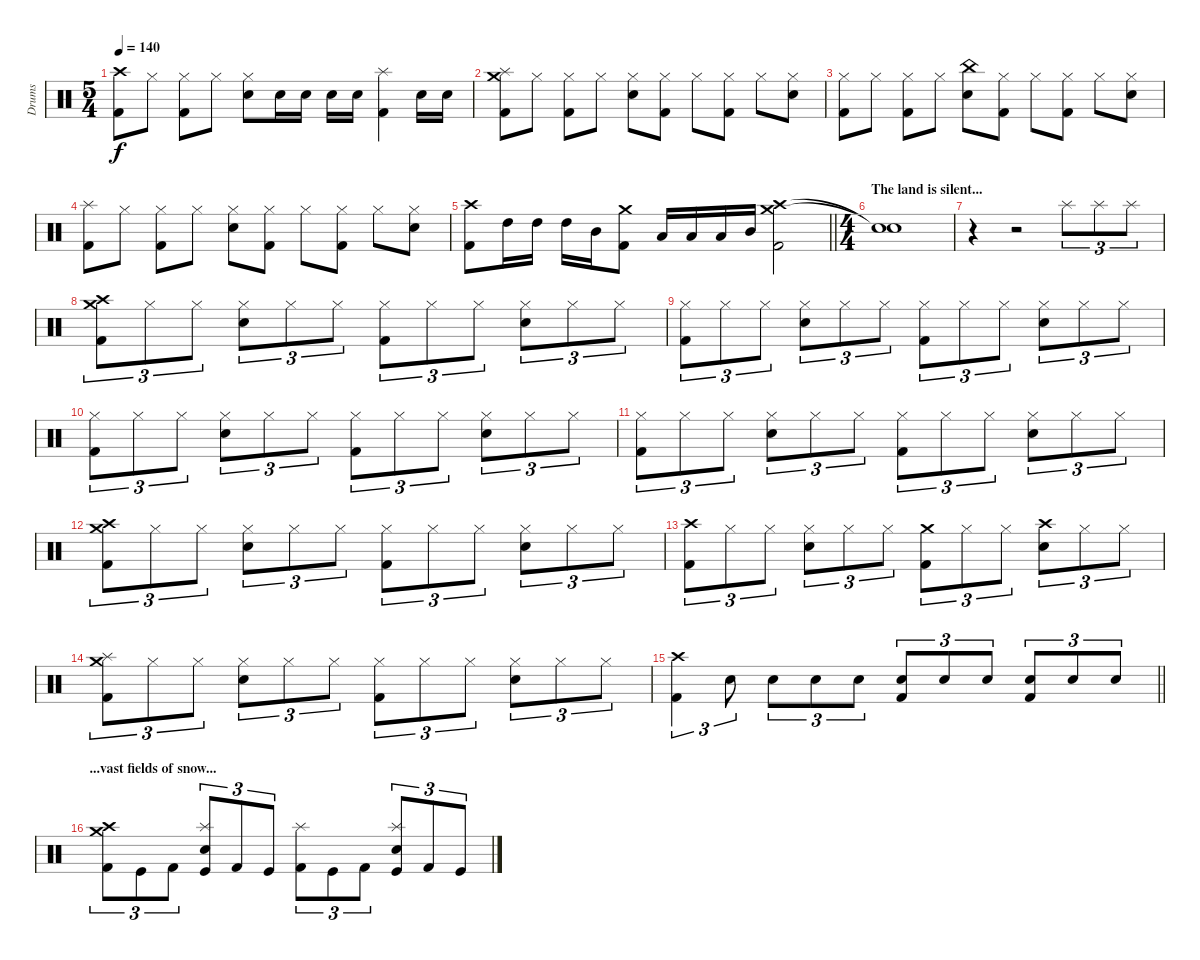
\track ("Drums" "Drums") {instrument percussion}
\staff {score}
\articulation defaults
\ts (5 4)
\tempo 140
\clef neutral
\ks c
("Crash high (hit)" "Kick (hit) 2").8{dy f} "Hi-Hat (closed)".8 ("Hi-Hat (closed)" "Kick (hit) 2").8 "Hi-Hat (closed)".8 ("Hi-Hat (closed)" "Snare (hit) 2").8 "Snare (hit) 2".16 "Snare (hit) 2".16 "Snare (hit) 2".16 "Snare (hit) 2".16 ("Splash (hit)" "Kick (hit) 2").4 "Snare (hit) 2".16 "Snare (hit) 2".16 |
("Crash medium (hit)" "Splash (hit)" "Kick (hit) 2").8 "Hi-Hat (closed)".8 ("Hi-Hat (closed)" "Kick (hit) 2").8 "Hi-Hat (closed)".8 ("Hi-Hat (closed)" "Snare (hit) 2").8 ("Hi-Hat (closed)" "Kick (hit) 2").8 "Hi-Hat (closed)".8 ("Hi-Hat (closed)" "Kick (hit) 2").8 "Hi-Hat (closed)".8 ("Hi-Hat (closed)" "Snare (hit) 2").8 |
("Hi-Hat (closed)" "Kick (hit) 2").8 "Hi-Hat (closed)".8 ("Hi-Hat (closed)" "Kick (hit) 2").8 "Hi-Hat (closed)".8 ("China (hit)" "Snare (hit) 2").8 ("Hi-Hat (closed)" "Kick (hit) 2").8 "Hi-Hat (closed)".8 ("Hi-Hat (closed)" "Kick (hit) 2").8 "Hi-Hat (closed)".8 ("Hi-Hat (closed)" "Snare (hit) 2").8 |
("Splash (hit)" "Kick (hit) 2").8 "Hi-Hat (closed)".8 ("Hi-Hat (closed)" "Kick (hit) 2").8 "Hi-Hat (closed)".8 ("Hi-Hat (closed)" "Snare (hit) 2").8 ("Hi-Hat (closed)" "Kick (hit) 2").8 "Hi-Hat (closed)".8 ("Hi-Hat (closed)" "Kick (hit) 2").8 "Hi-Hat (closed)".8 ("Hi-Hat (closed)" "Snare (hit) 2").8 |
\barLineRight lightlight
("Crash high (hit)" "Kick (hit) 2").8 "High Tom (hit)".16 "High Tom (hit)".16 "High Tom (hit)".16 "Mid Tom (hit)".16 ("Crash medium (hit)" "Kick (hit) 2").8 "Low Tom (hit)".16 "Low Tom (hit)".16 "Low Tom (hit)".16 "Mid Tom (hit)".16 ("Crash high (hit)" "Crash medium (hit)" "Kick (hit) 2").2 |
\ts (4 4)
\section ("" "The land is silent...")
("Snare (hit)"{t} "Snare (hit)"{t}).1 |
r.4 r.2 "Splash (hit)".8{tu (3 2)} "Splash (hit)".8{tu (3 2)} "Splash (hit)".8{tu (3 2)} |
("Crash high (hit)" "Crash medium (hit)" "Kick (hit) 2").8{tu (3 2)} "Hi-Hat (closed)".8{tu (3 2)} "Hi-Hat (closed)".8{tu (3 2)} ("Hi-Hat (closed)" "Snare (hit) 2").8{tu (3 2)} "Hi-Hat (closed)".8{tu (3 2)} "Hi-Hat (closed)".8{tu (3 2)} ("Hi-Hat (closed)" "Kick (hit) 2").8{tu (3 2)} "Hi-Hat (closed)".8{tu (3 2)} "Hi-Hat (closed)".8{tu (3 2)} ("Hi-Hat (closed)" "Snare (hit) 2").8{tu (3 2)} "Hi-Hat (closed)".8{tu (3 2)} "Hi-Hat (closed)".8{tu (3 2)} |
("Hi-Hat (closed)" "Kick (hit) 2").8{tu (3 2)} "Hi-Hat (closed)".8{tu (3 2)} "Hi-Hat (closed)".8{tu (3 2)} ("Hi-Hat (closed)" "Snare (hit) 2").8{tu (3 2)} "Hi-Hat (closed)".8{tu (3 2)} "Hi-Hat (closed)".8{tu (3 2)} ("Hi-Hat (closed)" "Kick (hit) 2").8{tu (3 2)} "Hi-Hat (closed)".8{tu (3 2)} "Hi-Hat (closed)".8{tu (3 2)} ("Hi-Hat (closed)" "Snare (hit) 2").8{tu (3 2)} "Hi-Hat (closed)".8{tu (3 2)} "Hi-Hat (closed)".8{tu (3 2)} |
("Hi-Hat (closed)" "Kick (hit) 2").8{tu (3 2)} "Hi-Hat (closed)".8{tu (3 2)} "Hi-Hat (closed)".8{tu (3 2)} ("Hi-Hat (closed)" "Snare (hit) 2").8{tu (3 2)} "Hi-Hat (closed)".8{tu (3 2)} "Hi-Hat (closed)".8{tu (3 2)} ("Hi-Hat (closed)" "Kick (hit) 2").8{tu (3 2)} "Hi-Hat (closed)".8{tu (3 2)} "Hi-Hat (closed)".8{tu (3 2)} ("Hi-Hat (closed)" "Snare (hit) 2").8{tu (3 2)} "Hi-Hat (closed)".8{tu (3 2)} "Hi-Hat (closed)".8{tu (3 2)} |
("Hi-Hat (closed)" "Kick (hit) 2").8{tu (3 2)} "Hi-Hat (closed)".8{tu (3 2)} "Hi-Hat (closed)".8{tu (3 2)} ("Hi-Hat (closed)" "Snare (hit) 2").8{tu (3 2)} "Hi-Hat (closed)".8{tu (3 2)} "Hi-Hat (closed)".8{tu (3 2)} ("Hi-Hat (closed)" "Kick (hit) 2").8{tu (3 2)} "Hi-Hat (closed)".8{tu (3 2)} "Hi-Hat (closed)".8{tu (3 2)} ("Hi-Hat (closed)" "Snare (hit) 2").8{tu (3 2)} "Hi-Hat (closed)".8{tu (3 2)} "Hi-Hat (closed)".8{tu (3 2)} |
("Crash high (hit)" "Crash medium (hit)" "Kick (hit) 2").8{tu (3 2)} "Hi-Hat (closed)".8{tu (3 2)} "Hi-Hat (closed)".8{tu (3 2)} ("Hi-Hat (closed)" "Snare (hit) 2").8{tu (3 2)} "Hi-Hat (closed)".8{tu (3 2)} "Hi-Hat (closed)".8{tu (3 2)} ("Hi-Hat (closed)" "Kick (hit) 2").8{tu (3 2)} "Hi-Hat (closed)".8{tu (3 2)} "Hi-Hat (closed)".8{tu (3 2)} ("Hi-Hat (closed)" "Snare (hit) 2").8{tu (3 2)} "Hi-Hat (closed)".8{tu (3 2)} "Hi-Hat (closed)".8{tu (3 2)} |
("Crash high (hit)" "Kick (hit) 2").8{tu (3 2)} "Hi-Hat (closed)".8{tu (3 2)} "Hi-Hat (closed)".8{tu (3 2)} ("Hi-Hat (closed)" "Snare (hit) 2").8{tu (3 2)} "Hi-Hat (closed)".8{tu (3 2)} "Hi-Hat (closed)".8{tu (3 2)} ("Crash medium (hit)" "Kick (hit) 2").8{tu (3 2)} "Hi-Hat (closed)".8{tu (3 2)} "Hi-Hat (closed)".8{tu (3 2)} ("Crash high (hit)" "Snare (hit) 2").8{tu (3 2)} "Hi-Hat (closed)".8{tu (3 2)} "Hi-Hat (closed)".8{tu (3 2)} |
("Crash medium (hit)" "Splash (hit)" "Kick (hit) 2").8{tu (3 2)} "Hi-Hat (closed)".8{tu (3 2)} "Hi-Hat (closed)".8{tu (3 2)} ("Hi-Hat (closed)" "Snare (hit) 2").8{tu (3 2)} "Hi-Hat (closed)".8{tu (3 2)} "Hi-Hat (closed)".8{tu (3 2)} ("Hi-Hat (closed)" "Kick (hit) 2").8{tu (3 2)} "Hi-Hat (closed)".8{tu (3 2)} "Hi-Hat (closed)".8{tu (3 2)} ("Hi-Hat (closed)" "Snare (hit) 2").8{tu (3 2)} "Hi-Hat (closed)".8{tu (3 2)} "Hi-Hat (closed)".8{tu (3 2)} |
\barLineRight lightlight
("Crash high (hit)" "Kick (hit) 2").4{tu (3 2)} "Snare (hit) 2".8{tu (3 2)} "Snare (hit) 2".8{tu (3 2)} "Snare (hit) 2".8{tu (3 2)} "Snare (hit) 2".8{tu (3 2)} ("Snare (hit) 2" "Kick (hit) 2").8{tu (3 2)} "Snare (hit) 2".8{tu (3 2)} "Snare (hit) 2".8{tu (3 2)} ("Snare (hit) 2" "Kick (hit) 2").8{tu (3 2)} "Snare (hit) 2".8{tu (3 2)} "Snare (hit) 2".8{tu (3 2)} |
\section ("" "...vast fields of snow...")
("Crash high (hit)" "Crash medium (hit)" "Kick (hit) 2").8{tu (3 2)} "Kick (hit)".8{tu (3 2)} "Kick (hit) 2".8{tu (3 2)} ("Splash (hit)" "Snare (hit) 2" "Kick (hit)").8{tu (3 2)} "Kick (hit) 2".8{tu (3 2)} "Kick (hit)".8{tu (3 2)} ("Splash (hit)" "Kick (hit) 2").8{tu (3 2)} "Kick (hit)".8{tu (3 2)} "Kick (hit) 2".8{tu (3 2)} ("Splash (hit)" "Snare (hit) 2" "Kick (hit)").8{tu (3 2)} "Kick (hit) 2".8{tu (3 2)} "Kick (hit)".8{tu (3 2)}
